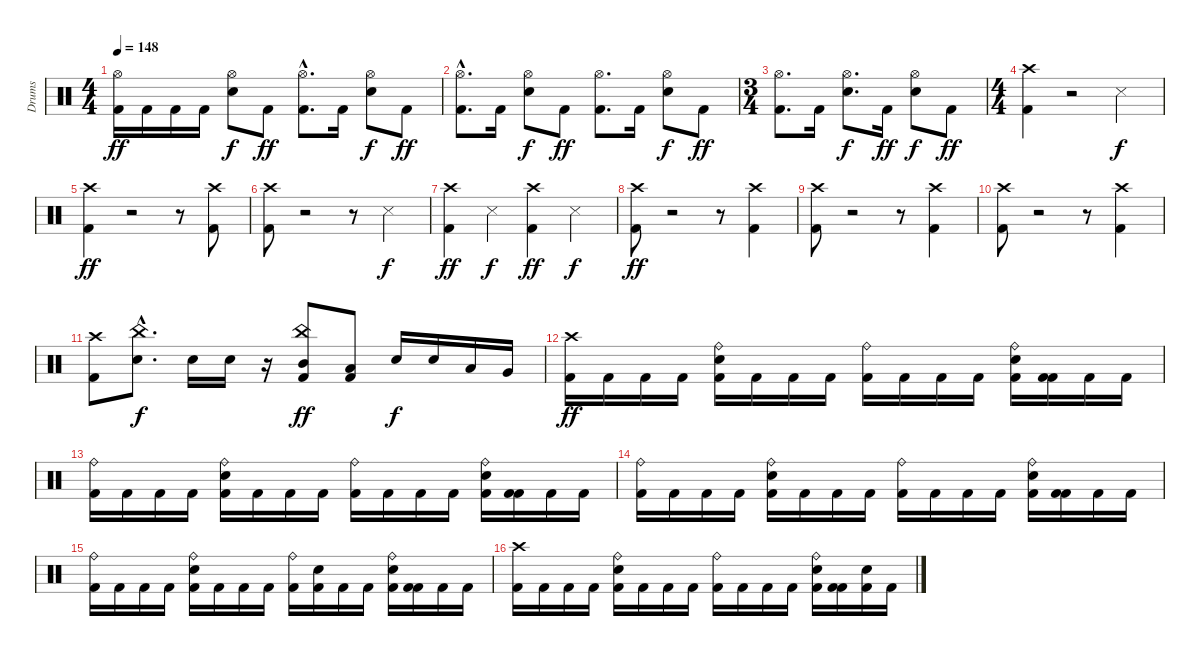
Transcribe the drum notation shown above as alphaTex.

\track ("Drums" "Drums") {instrument percussion}
\staff {score}
\articulation defaults
\ts (4 4)
\tempo 148
\clef neutral
\ks c
("Hi-Hat (open)" "Kick (hit) 2").16{dy ff} "Kick (hit) 2".16 "Kick (hit) 2".16 "Kick (hit) 2".16 ("Hi-Hat (open)" "Electric Snare (hit)").8{dy f} "Kick (hit) 2".8{dy ff} ("Hi-Hat (open)" "Kick (hit) 2"{hac}).8{d} "Kick (hit) 2".16 ("Hi-Hat (open)" "Electric Snare (hit)").8{dy f} "Kick (hit) 2".8{dy ff} |
("Hi-Hat (open)" "Kick (hit) 2"{hac}).8{d} "Kick (hit) 2".16 ("Electric Snare (hit)" "Hi-Hat (open)").8{dy f} "Kick (hit) 2".8{dy ff} ("Hi-Hat (open)" "Kick (hit) 2").8{d} "Kick (hit) 2".16 ("Hi-Hat (open)" "Electric Snare (hit)").8{dy f} "Kick (hit) 2".8{dy ff} |
\ts (3 4)
("Hi-Hat (open)" "Kick (hit) 2").8{d} "Kick (hit) 2".16 ("Hi-Hat (open)" "Electric Snare (hit)").8{d dy f} "Kick (hit) 2".16{dy ff} ("Hi-Hat (open)" "Electric Snare (hit)").8{dy f} "Kick (hit) 2".8{dy ff} |
\ts (4 4)
("Crash high (hit)" "Kick (hit) 2").4 r.2 "Snare (side stick) 3".4{dy f} |
("Crash high (hit)" "Kick (hit) 2").4{dy ff} r.2 r.8 ("Crash high (hit)" "Kick (hit) 2").8 |
("Crash high (hit)" "Kick (hit) 2").8 r.2 r.8 "Snare (side stick) 3".4{dy f volume 11} |
("Crash high (hit)" "Kick (hit) 2").4{dy ff} "Snare (side stick) 3".4{dy f} ("Crash high (hit)" "Kick (hit) 2").4{dy ff} "Snare (side stick) 3".4{dy f} |
("Crash high (hit)" "Kick (hit) 2").8{dy ff} r.2 r.8 ("Crash high (hit)" "Kick (hit) 2").4{volume 11} |
("Crash high (hit)" "Kick (hit) 2").8 r.2 r.8 ("Crash high (hit)" "Kick (hit) 2").4{volume 11} |
("Crash high (hit)" "Kick (hit) 2").8 r.2 r.8 ("Crash high (hit)" "Kick (hit) 2").4{volume 11} |
("Crash high (hit)" "Kick (hit) 2").8 ("Electric Snare (hit)"{hac} "China (hit)").8{d dy f} "Electric Snare (hit)".16 "Electric Snare (hit)".16 r.16 ("Mid Tom (hit)" "China (hit)" "Kick (hit) 2").8{dy ff} ("Low Tom (hit)" "Kick (hit) 2").8 "Electric Snare (hit)".16{dy f} "Electric Snare (hit)".16 "Low Tom (hit)".16 "Very Low Tom (hit)".16 |
("Crash high (hit)" "Kick (hit) 2").16{dy ff} "Kick (hit) 2".16 "Kick (hit) 2".16 "Kick (hit) 2".16 ("Electric Snare (hit)" "Ride (bell)" "Kick (hit) 2").16 "Kick (hit) 2".16 "Kick (hit) 2".16 "Kick (hit) 2".16 ("Ride (bell)" "Kick (hit) 2").16 "Kick (hit) 2".16 "Kick (hit) 2".16 "Kick (hit) 2".16 ("Electric Snare (hit)" "Ride (bell)" "Kick (hit) 2").16 ("Kick (hit) 2" "Kick (hit) 2").16 "Kick (hit) 2".16 "Kick (hit) 2".16 |
("Ride (bell)" "Kick (hit) 2").16 "Kick (hit) 2".16 "Kick (hit) 2".16 "Kick (hit) 2".16 ("Electric Snare (hit)" "Ride (bell)" "Kick (hit) 2").16 "Kick (hit) 2".16 "Kick (hit) 2".16 "Kick (hit) 2".16 ("Ride (bell)" "Kick (hit) 2").16 "Kick (hit) 2".16 "Kick (hit) 2".16 "Kick (hit) 2".16 ("Electric Snare (hit)" "Ride (bell)" "Kick (hit) 2").16 ("Kick (hit) 2" "Kick (hit) 2").16 "Kick (hit) 2".16 "Kick (hit) 2".16 |
("Ride (bell)" "Kick (hit) 2").16 "Kick (hit) 2".16 "Kick (hit) 2".16 "Kick (hit) 2".16 ("Electric Snare (hit)" "Ride (bell)" "Kick (hit) 2").16 "Kick (hit) 2".16 "Kick (hit) 2".16 "Kick (hit) 2".16 ("Ride (bell)" "Kick (hit) 2").16 "Kick (hit) 2".16 "Kick (hit) 2".16 "Kick (hit) 2".16 ("Electric Snare (hit)" "Ride (bell)" "Kick (hit) 2").16 ("Kick (hit) 2" "Kick (hit) 2").16 "Kick (hit) 2".16 "Kick (hit) 2".16 |
("Ride (bell)" "Kick (hit) 2").16 "Kick (hit) 2".16 "Kick (hit) 2".16 "Kick (hit) 2".16 ("Ride (bell)" "Electric Snare (hit)" "Kick (hit) 2").16 "Kick (hit) 2".16 "Kick (hit) 2".16 "Kick (hit) 2".16 ("Ride (bell)" "Kick (hit) 2").16 ("Electric Snare (hit)" "Kick (hit) 2").16 "Kick (hit) 2".16 "Kick (hit) 2".16 ("Electric Snare (hit)" "Ride (bell)" "Kick (hit) 2").16 ("Kick (hit) 2" "Kick (hit) 2").16 "Kick (hit) 2".16 "Kick (hit) 2".16 |
("Crash high (hit)" "Kick (hit) 2").16 "Kick (hit) 2".16 "Kick (hit) 2".16 "Kick (hit) 2".16 ("Electric Snare (hit)" "Ride (bell)" "Kick (hit) 2").16 "Kick (hit) 2".16 "Kick (hit) 2".16 "Kick (hit) 2".16 ("Ride (bell)" "Kick (hit) 2").16 "Kick (hit) 2".16 "Kick (hit) 2".16 "Kick (hit) 2".16 ("Ride (bell)" "Electric Snare (hit)" "Kick (hit) 2").16 ("Kick (hit) 2" "Kick (hit) 2").16 ("Electric Snare (hit)" "Kick (hit) 2").16 "Kick (hit) 2".16
